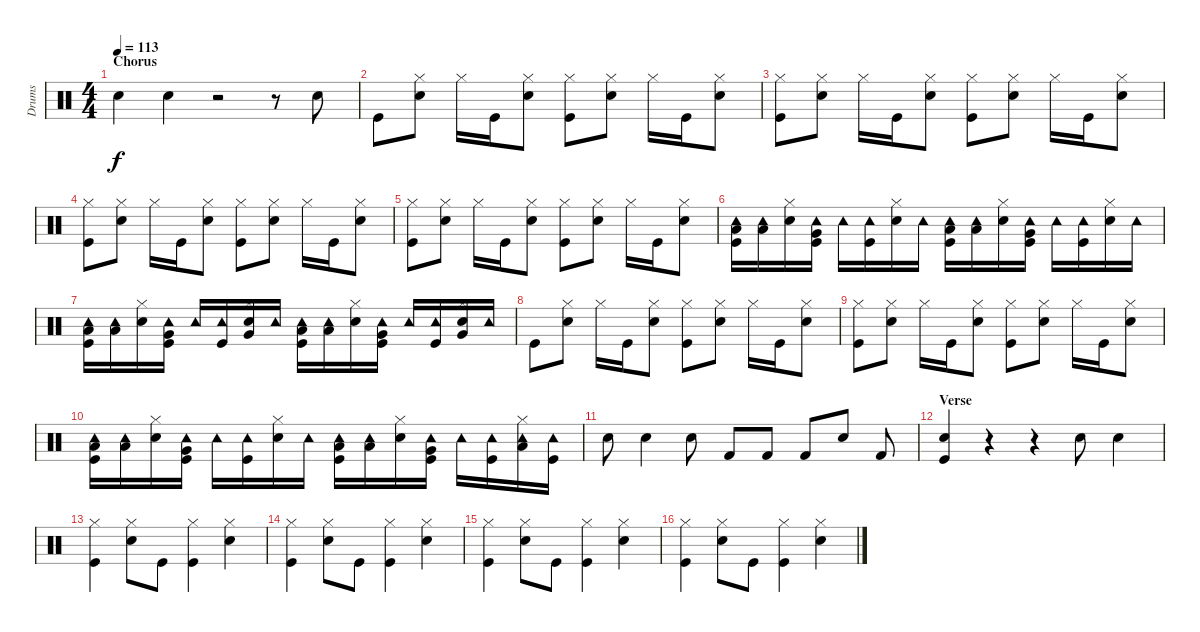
\track ("Drums" "Drums") {instrument percussion}
\staff {score}
\articulation defaults
\ts (4 4)
\section ("" "Chorus")
\tempo 113
\clef neutral
\ks c "Snare (hit) 2".4{dy f} "Snare (hit) 2".4
r.2 r.8 "Snare (hit) 2".8 |
"Kick (hit)".8 ("Hi-Hat (closed)" "Snare (hit) 2").8 "Hi-Hat (closed)".16 "Kick (hit)".16 ("Hi-Hat (closed)" "Snare (hit) 2").8 ("Hi-Hat (closed)" "Kick (hit)").8 ("Hi-Hat (closed)" "Snare (hit) 2").8 "Hi-Hat (closed)".16 "Kick (hit)".16 ("Hi-Hat (closed)" "Snare (hit) 2").8 |
("Hi-Hat (closed)" "Kick (hit)").8 ("Hi-Hat (closed)" "Snare (hit) 2").8 "Hi-Hat (closed)".16 "Kick (hit)".16 ("Hi-Hat (closed)" "Snare (hit) 2").8 ("Hi-Hat (closed)" "Kick (hit)").8 ("Hi-Hat (closed)" "Snare (hit) 2").8 "Hi-Hat (closed)".16 "Kick (hit)".16 ("Hi-Hat (closed)" "Snare (hit) 2").8 |
("Hi-Hat (closed)" "Kick (hit)").8 ("Hi-Hat (closed)" "Snare (hit) 2").8 "Hi-Hat (closed)".16 "Kick (hit)".16 ("Hi-Hat (closed)" "Snare (hit) 2").8 ("Hi-Hat (closed)" "Kick (hit)").8 ("Hi-Hat (closed)" "Snare (hit) 2").8 "Hi-Hat (closed)".16 "Kick (hit)".16 ("Hi-Hat (closed)" "Snare (hit) 2").8 |
("Hi-Hat (closed)" "Kick (hit)").8 ("Hi-Hat (closed)" "Snare (hit) 2").8 "Hi-Hat (closed)".16 "Kick (hit)".16 ("Hi-Hat (closed)" "Snare (hit) 2").8 ("Hi-Hat (closed)" "Kick (hit)").8 ("Hi-Hat (closed)" "Snare (hit) 2").8 "Hi-Hat (closed)".16 "Kick (hit)".16 ("Hi-Hat (closed)" "Snare (hit) 2").8 |
("Tambourine (hit)" "Low Tom (hit)" "Kick (hit)").16 ("Tambourine (hit)" "Low Floor Tom (hit)").16 ("Hi-Hat (closed)" "Snare (hit) 2").16 ("Tambourine (hit)" "Very Low Tom (hit)" "Kick (hit)").16 "Tambourine (hit)".16 ("Tambourine (hit)" "Kick (hit)").16 ("Hi-Hat (closed)" "Snare (hit) 2").16 "Tambourine (hit)".16 ("Tambourine (hit)" "Low Tom (hit)" "Kick (hit)").16 ("Tambourine (hit)" "Low Floor Tom (hit)").16 ("Hi-Hat (closed)" "Snare (hit) 2").16 ("Tambourine (hit)" "Very Low Tom (hit)" "Kick (hit)").16 "Tambourine (hit)".16 ("Tambourine (hit)" "Kick (hit)").16 ("Hi-Hat (closed)" "Snare (hit) 2").16 "Tambourine (hit)".16 |
("Tambourine (hit)" "Low Tom (hit)" "Kick (hit)").16 ("Tambourine (hit)" "Low Floor Tom (hit)").16 ("Hi-Hat (closed)" "Snare (hit) 2").16 ("Tambourine (hit)" "Very Low Tom (hit)" "Kick (hit)").16 "Tambourine (hit)".16 ("Tambourine (hit)" "Kick (hit)").16 ("Hi-Hat (closed)" "Snare (hit) 2" "Very Low Tom (hit)").16 "Tambourine (hit)".16 ("Tambourine (hit)" "Low Tom (hit)" "Kick (hit)").16 ("Tambourine (hit)" "Low Floor Tom (hit)").16 ("Hi-Hat (closed)" "Snare (hit) 2").16 ("Tambourine (hit)" "Very Low Tom (hit)" "Kick (hit)").16 "Tambourine (hit)".16 ("Tambourine (hit)" "Kick (hit)").16 ("Hi-Hat (closed)" "Snare (hit) 2" "Very Low Tom (hit)").16 "Tambourine (hit)".16 |
"Kick (hit)".8 ("Hi-Hat (closed)" "Snare (hit) 2").8 "Hi-Hat (closed)".16 "Kick (hit)".16 ("Hi-Hat (closed)" "Snare (hit) 2").8 ("Hi-Hat (closed)" "Kick (hit)").8 ("Hi-Hat (closed)" "Snare (hit) 2").8 "Hi-Hat (closed)".16 "Kick (hit)".16 ("Hi-Hat (closed)" "Snare (hit) 2").8 |
("Hi-Hat (closed)" "Kick (hit)").8 ("Hi-Hat (closed)" "Snare (hit) 2").8 "Hi-Hat (closed)".16 "Kick (hit)".16 ("Hi-Hat (closed)" "Snare (hit) 2").8 ("Hi-Hat (closed)" "Kick (hit)").8 ("Hi-Hat (closed)" "Snare (hit) 2").8 "Hi-Hat (closed)".16 "Kick (hit)".16 ("Hi-Hat (closed)" "Snare (hit) 2").8 |
("Tambourine (hit)" "Low Tom (hit)" "Kick (hit)").16 ("Tambourine (hit)" "Low Floor Tom (hit)").16 ("Hi-Hat (closed)" "Snare (hit) 2").16 ("Tambourine (hit)" "Very Low Tom (hit)" "Kick (hit)").16 "Tambourine (hit)".16 ("Tambourine (hit)" "Kick (hit)").16 ("Hi-Hat (closed)" "Snare (hit) 2").16 "Tambourine (hit)".16 ("Tambourine (hit)" "Low Tom (hit)" "Kick (hit)").16 ("Tambourine (hit)" "Low Floor Tom (hit)").16 ("Hi-Hat (closed)" "Snare (hit) 2").16 ("Tambourine (hit)" "Very Low Tom (hit)" "Kick (hit)").16 "Tambourine (hit)".16 ("Tambourine (hit)" "Kick (hit)").16 ("Hi-Hat (closed)" "Tambourine (hit)" "Low Tom (hit)").16 ("Tambourine (hit)" "Kick (hit)").16 |
"Snare (hit) 2".8 "Snare (hit) 2".4 "Snare (hit) 2".8 "Kick (hit) 2".8 "Kick (hit) 2".8 "Kick (hit) 2".8 "Snare (hit) 2".8 "Kick (hit) 2".8 |
\section ("" "Verse")
("Snare (hit) 2" "Kick (hit)").4 r.4 r.4 "Snare (hit) 2".8 "Snare (hit) 2".4 |
("Hi-Hat (closed)" "Kick (hit)").4 ("Hi-Hat (closed)" "Snare (hit) 2").8 "Kick (hit)".8 ("Hi-Hat (closed)" "Kick (hit)").4 ("Hi-Hat (closed)" "Snare (hit) 2").4 |
("Hi-Hat (closed)" "Kick (hit)").4 ("Hi-Hat (closed)" "Snare (hit) 2").8 "Kick (hit)".8 ("Hi-Hat (closed)" "Kick (hit)").4 ("Hi-Hat (closed)" "Snare (hit) 2").4 |
("Hi-Hat (closed)" "Kick (hit)").4 ("Hi-Hat (closed)" "Snare (hit) 2").8 "Kick (hit)".8 ("Hi-Hat (closed)" "Kick (hit)").4 ("Hi-Hat (closed)" "Snare (hit) 2").4 |
("Hi-Hat (closed)" "Kick (hit)").4 ("Hi-Hat (closed)" "Snare (hit) 2").8 "Kick (hit)".8 ("Hi-Hat (closed)" "Kick (hit)").4 ("Hi-Hat (closed)" "Snare (hit) 2").4
